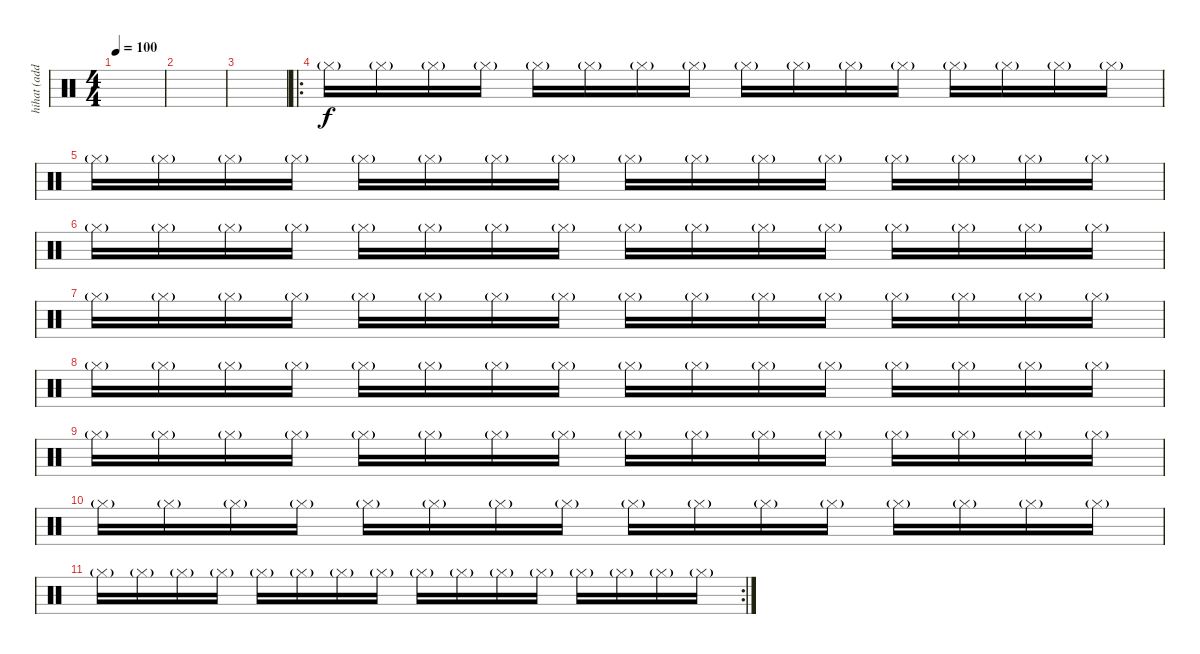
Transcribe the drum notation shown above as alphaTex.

\track ("hihat (additional)" "hihat (add") {instrument percussion}
\staff {score}
\articulation defaults
\ts (4 4)
\tempo 100
\clef neutral
\ks c
|
|
|
\ro "Hi-Hat (closed)"{g}.16 "Hi-Hat (closed)"{g}.16 "Hi-Hat (closed)"{g}.16 "Hi-Hat (closed)"{g}.16 "Hi-Hat (closed)"{g}.16 "Hi-Hat (closed)"{g}.16 "Hi-Hat (closed)"{g}.16 "Hi-Hat (closed)"{g}.16 "Hi-Hat (closed)"{g}.16 "Hi-Hat (closed)"{g}.16 "Hi-Hat (closed)"{g}.16 "Hi-Hat (closed)"{g}.16 "Hi-Hat (closed)"{g}.16 "Hi-Hat (closed)"{g}.16 "Hi-Hat (closed)"{g}.16 "Hi-Hat (closed)"{g}.16
|
"Hi-Hat (closed)"{g}.16 "Hi-Hat (closed)"{g}.16 "Hi-Hat (closed)"{g}.16 "Hi-Hat (closed)"{g}.16 "Hi-Hat (closed)"{g}.16 "Hi-Hat (closed)"{g}.16 "Hi-Hat (closed)"{g}.16 "Hi-Hat (closed)"{g}.16 "Hi-Hat (closed)"{g}.16 "Hi-Hat (closed)"{g}.16 "Hi-Hat (closed)"{g}.16 "Hi-Hat (closed)"{g}.16 "Hi-Hat (closed)"{g}.16 "Hi-Hat (closed)"{g}.16 "Hi-Hat (closed)"{g}.16 "Hi-Hat (closed)"{g}.16 |
"Hi-Hat (closed)"{g}.16 "Hi-Hat (closed)"{g}.16 "Hi-Hat (closed)"{g}.16 "Hi-Hat (closed)"{g}.16 "Hi-Hat (closed)"{g}.16 "Hi-Hat (closed)"{g}.16 "Hi-Hat (closed)"{g}.16 "Hi-Hat (closed)"{g}.16 "Hi-Hat (closed)"{g}.16 "Hi-Hat (closed)"{g}.16 "Hi-Hat (closed)"{g}.16 "Hi-Hat (closed)"{g}.16 "Hi-Hat (closed)"{g}.16 "Hi-Hat (closed)"{g}.16 "Hi-Hat (closed)"{g}.16 "Hi-Hat (closed)"{g}.16 |
"Hi-Hat (closed)"{g}.16 "Hi-Hat (closed)"{g}.16 "Hi-Hat (closed)"{g}.16 "Hi-Hat (closed)"{g}.16 "Hi-Hat (closed)"{g}.16 "Hi-Hat (closed)"{g}.16 "Hi-Hat (closed)"{g}.16 "Hi-Hat (closed)"{g}.16 "Hi-Hat (closed)"{g}.16 "Hi-Hat (closed)"{g}.16 "Hi-Hat (closed)"{g}.16 "Hi-Hat (closed)"{g}.16 "Hi-Hat (closed)"{g}.16 "Hi-Hat (closed)"{g}.16 "Hi-Hat (closed)"{g}.16 "Hi-Hat (closed)"{g}.16 |
"Hi-Hat (closed)"{g}.16 "Hi-Hat (closed)"{g}.16 "Hi-Hat (closed)"{g}.16 "Hi-Hat (closed)"{g}.16 "Hi-Hat (closed)"{g}.16 "Hi-Hat (closed)"{g}.16 "Hi-Hat (closed)"{g}.16 "Hi-Hat (closed)"{g}.16 "Hi-Hat (closed)"{g}.16 "Hi-Hat (closed)"{g}.16 "Hi-Hat (closed)"{g}.16 "Hi-Hat (closed)"{g}.16 "Hi-Hat (closed)"{g}.16 "Hi-Hat (closed)"{g}.16 "Hi-Hat (closed)"{g}.16 "Hi-Hat (closed)"{g}.16 |
"Hi-Hat (closed)"{g}.16 "Hi-Hat (closed)"{g}.16 "Hi-Hat (closed)"{g}.16 "Hi-Hat (closed)"{g}.16 "Hi-Hat (closed)"{g}.16 "Hi-Hat (closed)"{g}.16 "Hi-Hat (closed)"{g}.16 "Hi-Hat (closed)"{g}.16 "Hi-Hat (closed)"{g}.16 "Hi-Hat (closed)"{g}.16 "Hi-Hat (closed)"{g}.16 "Hi-Hat (closed)"{g}.16 "Hi-Hat (closed)"{g}.16 "Hi-Hat (closed)"{g}.16 "Hi-Hat (closed)"{g}.16 "Hi-Hat (closed)"{g}.16 |
"Hi-Hat (closed)"{g}.16 "Hi-Hat (closed)"{g}.16 "Hi-Hat (closed)"{g}.16 "Hi-Hat (closed)"{g}.16 "Hi-Hat (closed)"{g}.16 "Hi-Hat (closed)"{g}.16 "Hi-Hat (closed)"{g}.16 "Hi-Hat (closed)"{g}.16 "Hi-Hat (closed)"{g}.16 "Hi-Hat (closed)"{g}.16 "Hi-Hat (closed)"{g}.16 "Hi-Hat (closed)"{g}.16 "Hi-Hat (closed)"{g}.16 "Hi-Hat (closed)"{g}.16 "Hi-Hat (closed)"{g}.16 "Hi-Hat (closed)"{g}.16 |
\rc 2 "Hi-Hat (closed)"{g}.16 "Hi-Hat (closed)"{g}.16 "Hi-Hat (closed)"{g}.16 "Hi-Hat (closed)"{g}.16 "Hi-Hat (closed)"{g}.16 "Hi-Hat (closed)"{g}.16 "Hi-Hat (closed)"{g}.16 "Hi-Hat (closed)"{g}.16 "Hi-Hat (closed)"{g}.16 "Hi-Hat (closed)"{g}.16 "Hi-Hat (closed)"{g}.16 "Hi-Hat (closed)"{g}.16 "Hi-Hat (closed)"{g}.16 "Hi-Hat (closed)"{g}.16 "Hi-Hat (closed)"{g}.16 "Hi-Hat (closed)"{g}.16
